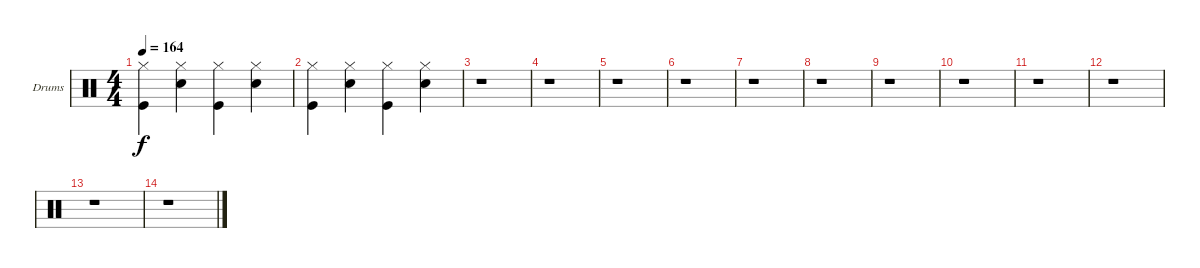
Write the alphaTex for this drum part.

\bracketExtendMode groupsimilarinstruments
\firstSystemTrackNameOrientation horizontal
\otherSystemsTrackNameOrientation horizontal
\track ("Matt Sorum - Drums" "Drums") {instrument percussion}
\staff {score}
\articulation defaults
\ts (4 4)
\tempo 164
\clef neutral
\ks aminor
("Hi-Hat (closed)" "Kick (hit)").4{dy f} ("Hi-Hat (closed)" "Snare (hit) 2").4 ("Hi-Hat (closed)" "Kick (hit)").4 ("Hi-Hat (closed)" "Snare (hit) 2").4 |
("Hi-Hat (closed)" "Kick (hit)").4 ("Hi-Hat (closed)" "Snare (hit) 2").4 ("Hi-Hat (closed)" "Kick (hit)").4 ("Hi-Hat (closed)" "Snare (hit) 2").4 |
r.1 |
r.1 |
r.1 |
r.1 |
r.1 |
r.1 |
r.1 |
r.1 |
r.1 |
r.1 |
r.1 |
r.1
